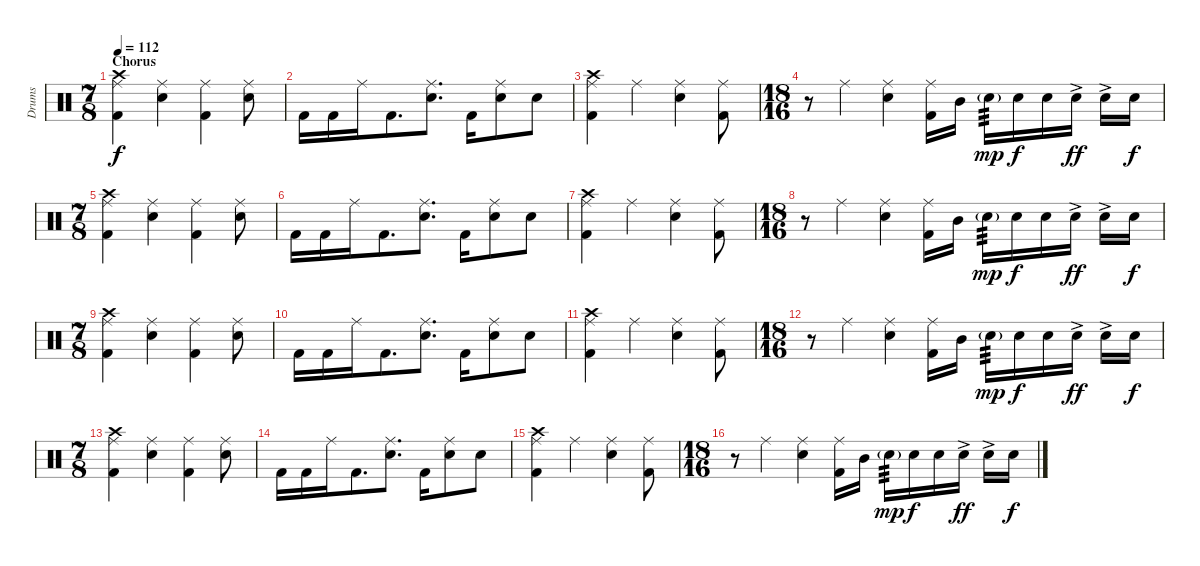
\track ("Drums" "Drums") {instrument percussion}
\staff {score}
\articulation defaults
\ts (7 8)
\section ("" "Chorus")
\tempo 112
\clef neutral
\ks c
("Ride (middle)" "Crash high (hit)" "Kick (hit) 2").4{dy f volume 10} ("Ride (middle)" "Electric Snare (hit)").4 ("Ride (middle)" "Kick (hit) 2").4 ("Ride (middle)" "Electric Snare (hit)").8 |
"Kick (hit) 2".16 "Kick (hit) 2".16 "Ride (middle)".16 "Kick (hit) 2".8{d} ("Ride (middle)" "Electric Snare (hit)").8{d} "Kick (hit) 2".16 ("Ride (middle)" "Electric Snare (hit)").8 "Electric Snare (hit)".8 |
("Ride (middle)" "Crash high (hit)" "Kick (hit) 2").4 "Ride (middle)".4 ("Ride (middle)" "Electric Snare (hit)").4 ("Ride (middle)" "Kick (hit) 2").8 |
\ts (18 16)
r.8 "Ride (middle)".4 ("Ride (middle)" "Electric Snare (hit)").4 ("Ride (middle)" "Kick (hit) 2").16 "Mid Tom (hit)".16 "Electric Snare (hit)"{g}.16{tp 3 dy mp} "Electric Snare (hit)".16{dy f} "Electric Snare (hit)".16 "Electric Snare (hit)"{ac}.16{dy ff} "Electric Snare (hit)"{ac}.16 "Electric Snare (hit)".16{dy f} |
\ts (7 8)
("Ride (middle)" "Crash high (hit)" "Kick (hit) 2").4 ("Ride (middle)" "Electric Snare (hit)").4 ("Ride (middle)" "Kick (hit) 2").4 ("Ride (middle)" "Electric Snare (hit)").8 |
"Kick (hit) 2".16 "Kick (hit) 2".16 "Ride (middle)".16 "Kick (hit) 2".8{d} ("Ride (middle)" "Electric Snare (hit)").8{d} "Kick (hit) 2".16 ("Ride (middle)" "Electric Snare (hit)").8 "Electric Snare (hit)".8 |
("Ride (middle)" "Crash high (hit)" "Kick (hit) 2").4 "Ride (middle)".4 ("Ride (middle)" "Electric Snare (hit)").4 ("Ride (middle)" "Kick (hit) 2").8 |
\ts (18 16)
r.8 "Ride (middle)".4 ("Ride (middle)" "Electric Snare (hit)").4 ("Ride (middle)" "Kick (hit) 2").16 "Mid Tom (hit)".16 "Electric Snare (hit)"{g}.16{tp 3 dy mp} "Electric Snare (hit)".16{dy f} "Electric Snare (hit)".16 "Electric Snare (hit)"{ac}.16{dy ff} "Electric Snare (hit)"{ac}.16 "Electric Snare (hit)".16{dy f} |
\ts (7 8)
("Ride (middle)" "Crash high (hit)" "Kick (hit) 2").4 ("Ride (middle)" "Electric Snare (hit)").4 ("Ride (middle)" "Kick (hit) 2").4 ("Ride (middle)" "Electric Snare (hit)").8 |
"Kick (hit) 2".16 "Kick (hit) 2".16 "Ride (middle)".16 "Kick (hit) 2".8{d} ("Ride (middle)" "Electric Snare (hit)").8{d} "Kick (hit) 2".16 ("Ride (middle)" "Electric Snare (hit)").8 "Electric Snare (hit)".8 |
("Ride (middle)" "Crash high (hit)" "Kick (hit) 2").4 "Ride (middle)".4 ("Ride (middle)" "Electric Snare (hit)").4 ("Ride (middle)" "Kick (hit) 2").8 |
\ts (18 16)
r.8 "Ride (middle)".4 ("Ride (middle)" "Electric Snare (hit)").4 ("Ride (middle)" "Kick (hit) 2").16 "Mid Tom (hit)".16 "Electric Snare (hit)"{g}.16{tp 3 dy mp} "Electric Snare (hit)".16{dy f} "Electric Snare (hit)".16 "Electric Snare (hit)"{ac}.16{dy ff} "Electric Snare (hit)"{ac}.16 "Electric Snare (hit)".16{dy f} |
\ts (7 8)
("Ride (middle)" "Crash high (hit)" "Kick (hit) 2").4{volume 10} ("Ride (middle)" "Electric Snare (hit)").4 ("Ride (middle)" "Kick (hit) 2").4 ("Ride (middle)" "Electric Snare (hit)").8 |
"Kick (hit) 2".16 "Kick (hit) 2".16 "Ride (middle)".16 "Kick (hit) 2".8{d} ("Ride (middle)" "Electric Snare (hit)").8{d} "Kick (hit) 2".16 ("Ride (middle)" "Electric Snare (hit)").8 "Electric Snare (hit)".8 |
("Ride (middle)" "Crash high (hit)" "Kick (hit) 2").4 "Ride (middle)".4 ("Ride (middle)" "Electric Snare (hit)").4 ("Ride (middle)" "Kick (hit) 2").8 |
\ts (18 16)
r.8 "Ride (middle)".4 ("Ride (middle)" "Electric Snare (hit)").4 ("Ride (middle)" "Kick (hit) 2").16 "Mid Tom (hit)".16 "Electric Snare (hit)"{g}.16{tp 3 dy mp} "Electric Snare (hit)".16{dy f} "Electric Snare (hit)".16 "Electric Snare (hit)"{ac}.16{dy ff} "Electric Snare (hit)"{ac}.16 "Electric Snare (hit)".16{dy f}
